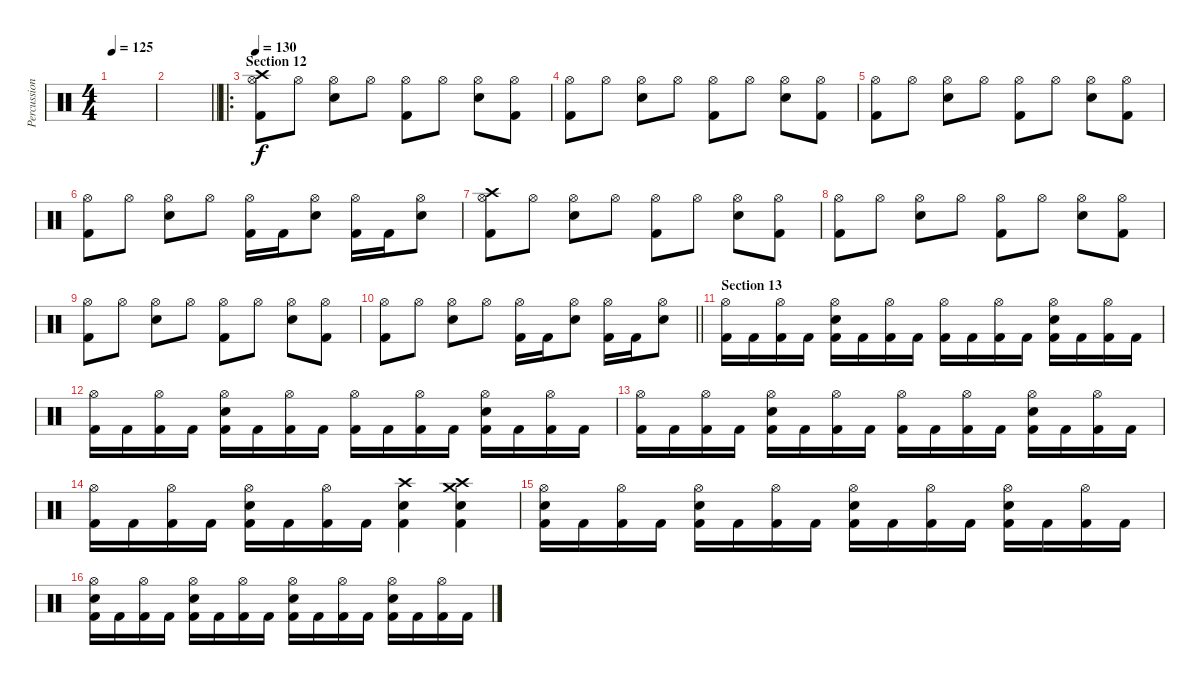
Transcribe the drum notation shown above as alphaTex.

\track ("Percussions" "Percussion") {instrument percussion}
\staff {score}
\articulation defaults
\ts (4 4)
\tempo 125
\clef neutral
\ks c
|
\barLineRight lightlight
|
\ro
\section ("" "Section 12")
\tempo 130
("Crash high (hit)" "Hi-Hat (open)" "Kick (hit) 2").8 "Hi-Hat (open)".8 ("Hi-Hat (open)" "Electric Snare (hit)").8 "Hi-Hat (open)".8 ("Hi-Hat (open)" "Kick (hit) 2").8 "Hi-Hat (open)".8 ("Hi-Hat (open)" "Electric Snare (hit)").8 ("Hi-Hat (open)" "Kick (hit) 2").8 |
("Hi-Hat (open)" "Kick (hit) 2").8 "Hi-Hat (open)".8 ("Hi-Hat (open)" "Electric Snare (hit)").8 "Hi-Hat (open)".8 ("Hi-Hat (open)" "Kick (hit) 2").8 "Hi-Hat (open)".8 ("Hi-Hat (open)" "Electric Snare (hit)").8 ("Hi-Hat (open)" "Kick (hit) 2").8 |
("Hi-Hat (open)" "Kick (hit) 2").8 "Hi-Hat (open)".8 ("Hi-Hat (open)" "Electric Snare (hit)").8 "Hi-Hat (open)".8 ("Hi-Hat (open)" "Kick (hit) 2").8 "Hi-Hat (open)".8 ("Hi-Hat (open)" "Electric Snare (hit)").8 ("Hi-Hat (open)" "Kick (hit) 2").8 |
("Hi-Hat (open)" "Kick (hit) 2").8 "Hi-Hat (open)".8 ("Hi-Hat (open)" "Electric Snare (hit)").8 "Hi-Hat (open)".8 ("Hi-Hat (open)" "Kick (hit) 2").16 "Kick (hit) 2".16 ("Hi-Hat (open)" "Electric Snare (hit)").8 ("Hi-Hat (open)" "Kick (hit) 2").16 "Kick (hit) 2".16 ("Hi-Hat (open)" "Electric Snare (hit)").8 |
("Crash high (hit)" "Hi-Hat (open)" "Kick (hit) 2").8 "Hi-Hat (open)".8 ("Hi-Hat (open)" "Electric Snare (hit)").8 "Hi-Hat (open)".8 ("Hi-Hat (open)" "Kick (hit) 2").8 "Hi-Hat (open)".8 ("Hi-Hat (open)" "Electric Snare (hit)").8 ("Hi-Hat (open)" "Kick (hit) 2").8 |
("Hi-Hat (open)" "Kick (hit) 2").8 "Hi-Hat (open)".8 ("Hi-Hat (open)" "Electric Snare (hit)").8 "Hi-Hat (open)".8 ("Hi-Hat (open)" "Kick (hit) 2").8 "Hi-Hat (open)".8 ("Hi-Hat (open)" "Electric Snare (hit)").8 ("Hi-Hat (open)" "Kick (hit) 2").8 |
("Hi-Hat (open)" "Kick (hit) 2").8 "Hi-Hat (open)".8 ("Hi-Hat (open)" "Electric Snare (hit)").8 "Hi-Hat (open)".8 ("Hi-Hat (open)" "Kick (hit) 2").8 "Hi-Hat (open)".8 ("Hi-Hat (open)" "Electric Snare (hit)").8 ("Hi-Hat (open)" "Kick (hit) 2").8 |
\barLineRight lightlight
("Hi-Hat (open)" "Kick (hit) 2").8 "Hi-Hat (open)".8 ("Hi-Hat (open)" "Electric Snare (hit)").8 "Hi-Hat (open)".8 ("Hi-Hat (open)" "Kick (hit) 2").16 "Kick (hit) 2".16 ("Hi-Hat (open)" "Electric Snare (hit)").8 ("Hi-Hat (open)" "Kick (hit) 2").16 "Kick (hit) 2".16 ("Hi-Hat (open)" "Electric Snare (hit)").8 |
\section ("" "Section 13")
("Hi-Hat (open)" "Kick (hit) 2").16 "Kick (hit) 2".16 ("Hi-Hat (open)" "Kick (hit) 2").16 "Kick (hit) 2".16 ("Hi-Hat (open)" "Electric Snare (hit)" "Kick (hit) 2").16 "Kick (hit) 2".16 ("Hi-Hat (open)" "Kick (hit) 2").16 "Kick (hit) 2".16 ("Hi-Hat (open)" "Kick (hit) 2").16 "Kick (hit) 2".16 ("Hi-Hat (open)" "Kick (hit) 2").16 "Kick (hit) 2".16 ("Hi-Hat (open)" "Electric Snare (hit)" "Kick (hit) 2").16 "Kick (hit) 2".16 ("Hi-Hat (open)" "Kick (hit) 2").16 "Kick (hit) 2".16 |
("Hi-Hat (open)" "Kick (hit) 2").16 "Kick (hit) 2".16 ("Hi-Hat (open)" "Kick (hit) 2").16 "Kick (hit) 2".16 ("Hi-Hat (open)" "Electric Snare (hit)" "Kick (hit) 2").16 "Kick (hit) 2".16 ("Hi-Hat (open)" "Kick (hit) 2").16 "Kick (hit) 2".16 ("Hi-Hat (open)" "Kick (hit) 2").16 "Kick (hit) 2".16 ("Hi-Hat (open)" "Kick (hit) 2").16 "Kick (hit) 2".16 ("Hi-Hat (open)" "Electric Snare (hit)" "Kick (hit) 2").16 "Kick (hit) 2".16 ("Hi-Hat (open)" "Kick (hit) 2").16 "Kick (hit) 2".16 |
("Hi-Hat (open)" "Kick (hit) 2").16 "Kick (hit) 2".16 ("Hi-Hat (open)" "Kick (hit) 2").16 "Kick (hit) 2".16 ("Hi-Hat (open)" "Electric Snare (hit)" "Kick (hit) 2").16 "Kick (hit) 2".16 ("Hi-Hat (open)" "Kick (hit) 2").16 "Kick (hit) 2".16 ("Hi-Hat (open)" "Kick (hit) 2").16 "Kick (hit) 2".16 ("Hi-Hat (open)" "Kick (hit) 2").16 "Kick (hit) 2".16 ("Hi-Hat (open)" "Electric Snare (hit)" "Kick (hit) 2").16 "Kick (hit) 2".16 ("Hi-Hat (open)" "Kick (hit) 2").16 "Kick (hit) 2".16 |
("Hi-Hat (open)" "Kick (hit) 2").16 "Kick (hit) 2".16 ("Hi-Hat (open)" "Kick (hit) 2").16 "Kick (hit) 2".16 ("Hi-Hat (open)" "Electric Snare (hit)" "Kick (hit) 2").16 "Kick (hit) 2".16 ("Hi-Hat (open)" "Kick (hit) 2").16 "Kick (hit) 2".16 ("Crash high (hit)" "Electric Snare (hit)" "Kick (hit) 2").4 ("Crash medium (hit)" "Crash high (hit)" "Electric Snare (hit)" "Kick (hit) 2").4 |
("Hi-Hat (open)" "Electric Snare (hit)" "Kick (hit) 2").16 "Kick (hit) 2".16 ("Hi-Hat (open)" "Kick (hit) 2").16 "Kick (hit) 2".16 ("Hi-Hat (open)" "Electric Snare (hit)" "Kick (hit) 2").16 "Kick (hit) 2".16 ("Hi-Hat (open)" "Kick (hit) 2").16 "Kick (hit) 2".16 ("Hi-Hat (open)" "Electric Snare (hit)" "Kick (hit) 2").16 "Kick (hit) 2".16 ("Hi-Hat (open)" "Kick (hit) 2").16 "Kick (hit) 2".16 ("Hi-Hat (open)" "Electric Snare (hit)" "Kick (hit) 2").16 "Kick (hit) 2".16 ("Hi-Hat (open)" "Kick (hit) 2").16 "Kick (hit) 2".16 |
("Hi-Hat (open)" "Electric Snare (hit)" "Kick (hit) 2").16 "Kick (hit) 2".16 ("Hi-Hat (open)" "Kick (hit) 2").16 "Kick (hit) 2".16 ("Hi-Hat (open)" "Electric Snare (hit)" "Kick (hit) 2").16 "Kick (hit) 2".16 ("Hi-Hat (open)" "Kick (hit) 2").16 "Kick (hit) 2".16 ("Hi-Hat (open)" "Electric Snare (hit)" "Kick (hit) 2").16 "Kick (hit) 2".16 ("Hi-Hat (open)" "Kick (hit) 2").16 "Kick (hit) 2".16 ("Hi-Hat (open)" "Electric Snare (hit)" "Kick (hit) 2").16 "Kick (hit) 2".16 ("Hi-Hat (open)" "Kick (hit) 2").16 "Kick (hit) 2".16
